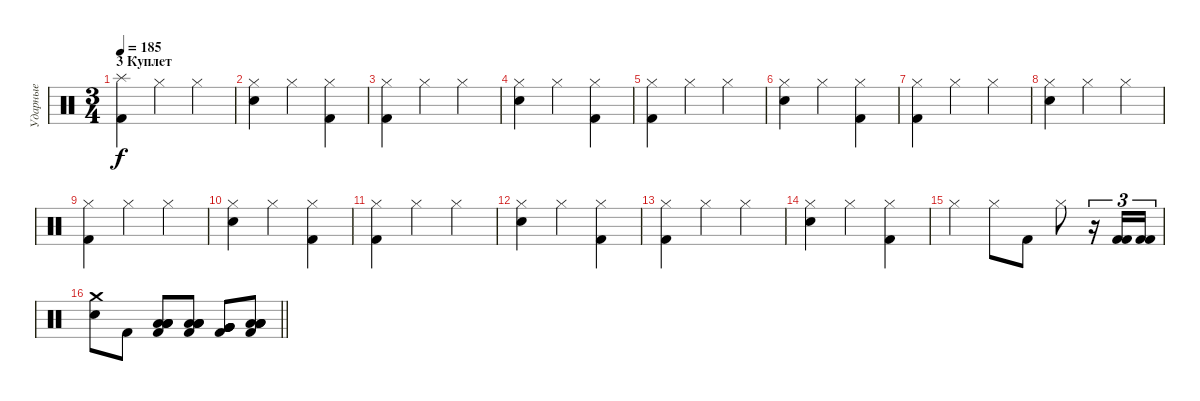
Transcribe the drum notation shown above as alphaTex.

\track ("Ударные" "Ударные") {instrument percussion}
\staff {score}
\articulation defaults
\ts (3 4)
\section ("" "3 Куплет")
\tempo 185
\clef neutral
\ks c
("Splash (hit)" "Kick (hit) 2").4{dy f} "Hi-Hat (closed)".4 "Hi-Hat (closed)".4 |
("Hi-Hat (closed)" "Snare (hit) 2").4 "Hi-Hat (closed)".4 ("Hi-Hat (closed)" "Kick (hit) 2").4 |
("Hi-Hat (closed)" "Kick (hit) 2").4 "Hi-Hat (closed)".4 "Hi-Hat (closed)".4 |
("Hi-Hat (closed)" "Snare (hit) 2").4 "Hi-Hat (closed)".4 ("Hi-Hat (closed)" "Kick (hit) 2").4 |
("Hi-Hat (closed)" "Kick (hit) 2").4 "Hi-Hat (closed)".4 "Hi-Hat (closed)".4 |
("Hi-Hat (closed)" "Snare (hit) 2").4 "Hi-Hat (closed)".4 ("Hi-Hat (closed)" "Kick (hit) 2").4 |
("Hi-Hat (closed)" "Kick (hit) 2").4 "Hi-Hat (closed)".4 "Hi-Hat (closed)".4 |
("Hi-Hat (closed)" "Snare (hit) 2").4 "Hi-Hat (closed)".4 "Hi-Hat (closed)".4 |
("Hi-Hat (closed)" "Kick (hit) 2").4 "Hi-Hat (closed)".4 "Hi-Hat (closed)".4 |
("Hi-Hat (closed)" "Snare (hit) 2").4 "Hi-Hat (closed)".4 ("Hi-Hat (closed)" "Kick (hit) 2").4 |
("Hi-Hat (closed)" "Kick (hit) 2").4 "Hi-Hat (closed)".4 "Hi-Hat (closed)".4 |
("Hi-Hat (closed)" "Snare (hit) 2").4 "Hi-Hat (closed)".4 ("Hi-Hat (closed)" "Kick (hit) 2").4 |
("Hi-Hat (closed)" "Kick (hit) 2").4 "Hi-Hat (closed)".4 "Hi-Hat (closed)".4 |
("Hi-Hat (closed)" "Snare (hit) 2").4 "Hi-Hat (closed)".4 ("Hi-Hat (closed)" "Kick (hit) 2").4 |
"Hi-Hat (closed)".4 "Hi-Hat (closed)".8 "Kick (hit) 2".8 "Hi-Hat (closed)".8 r.16{tu (3 2)} ("Kick (hit) 2" "Kick (hit) 2").16{tu (3 2)} ("Kick (hit) 2" "Kick (hit) 2").16{tu (3 2)} |
\barLineRight lightlight
("Snare (hit) 2" "Crash medium (hit)").8 "Kick (hit) 2".8 ("Low Tom (hit)" "Low Tom (hit)" "Kick (hit) 2" "Low Tom (hit)" "Low Tom (hit)").8 ("Low Tom (hit)" "Low Tom (hit)" "Kick (hit) 2" "Low Tom (hit)" "Low Tom (hit)").8 ("Very Low Tom (hit)" "Very Low Tom (hit)" "Kick (hit) 2" "Very Low Tom (hit)" "Very Low Tom (hit)").8 ("Low Floor Tom (hit)" "Low Floor Tom (hit)" "Kick (hit) 2" "Low Floor Tom (hit)" "Low Floor Tom (hit)").8
